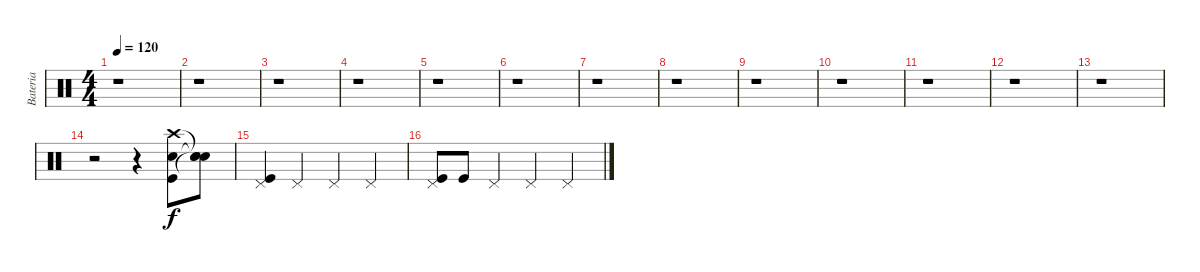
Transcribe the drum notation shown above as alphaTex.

\track ("Bateria" "Bateria") {instrument percussion}
\staff {score}
\articulation defaults
\ts (4 4)
\tempo 120
\clef neutral
\ks c
r.1{dy f} |
r.1 |
r.1 |
r.1 |
r.1 |
r.1 |
r.1 |
r.1 |
r.1 |
r.1 |
r.1 |
r.1 |
r.1 |
r.2 r.4 ("Crash high (hit)" "Snare (hit) 2" "Kick (hit)").8 ("Snare (hit)"{t} "Snare (hit)"{t} "Snare (hit)"{t}).8 |
("Pedal Hi-Hat (hit)" "Kick (hit)").4 "Pedal Hi-Hat (hit)".4 "Pedal Hi-Hat (hit)".4 "Pedal Hi-Hat (hit)".4 |
("Pedal Hi-Hat (hit)" "Kick (hit)").8 "Kick (hit)".8 "Pedal Hi-Hat (hit)".4 "Pedal Hi-Hat (hit)".4 "Pedal Hi-Hat (hit)".4
